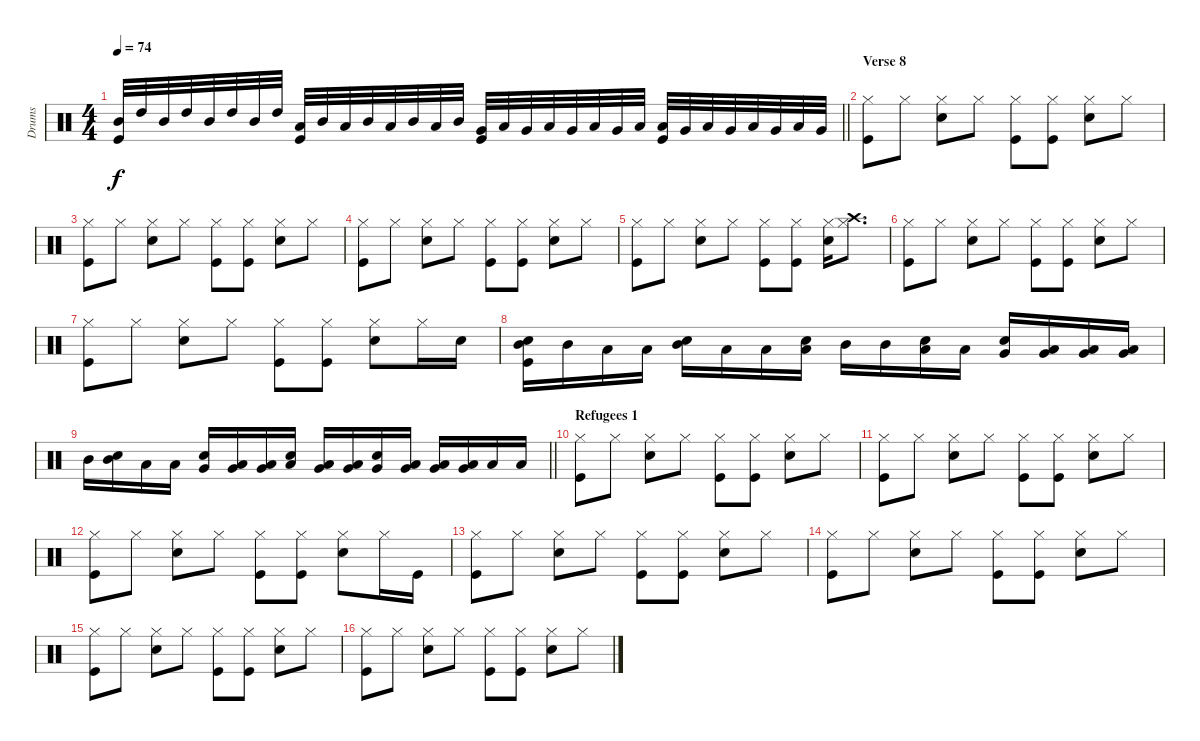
\track ("Drums" "Drums") {instrument percussion}
\staff {score}
\articulation defaults
\ts (4 4)
\tempo 74
\clef neutral
\barLineRight lightlight
\ks c
("Mid Tom (hit)" "Kick (hit)").32{dy f} "High Tom (hit)".32 "Mid Tom (hit)".32 "High Tom (hit)".32 "Mid Tom (hit)".32 "High Tom (hit)".32 "Mid Tom (hit)".32 "High Tom (hit)".32 ("Low Tom (hit)" "Kick (hit)").32 "Mid Tom (hit)".32 "Low Tom (hit)".32 "Mid Tom (hit)".32 "Low Tom (hit)".32 "Mid Tom (hit)".32 "Low Tom (hit)".32 "Mid Tom (hit)".32 ("Very Low Tom (hit)" "Kick (hit)").32 "Low Tom (hit)".32 "Very Low Tom (hit)".32 "Low Tom (hit)".32 "Very Low Tom (hit)".32 "Low Tom (hit)".32 "Very Low Tom (hit)".32 "Low Tom (hit)".32 ("Kick (hit)" "Low Floor Tom (hit)").32 "Very Low Tom (hit)".32 "Low Floor Tom (hit)".32 "Very Low Tom (hit)".32 "Low Floor Tom (hit)".32 "Very Low Tom (hit)".32 "Low Floor Tom (hit)".32 "Very Low Tom (hit)".32 |
\section ("" "Verse 8")
("Kick (hit)" "Hi-Hat (closed)").8 "Hi-Hat (closed)".8 ("Snare (hit) 2" "Hi-Hat (closed)").8 "Hi-Hat (closed)".8 ("Kick (hit)" "Hi-Hat (closed)").8 ("Kick (hit)" "Hi-Hat (closed)").8 ("Snare (hit) 2" "Hi-Hat (closed)").8 "Hi-Hat (closed)".8 |
("Kick (hit)" "Hi-Hat (closed)").8 "Hi-Hat (closed)".8 ("Snare (hit) 2" "Hi-Hat (closed)").8 "Hi-Hat (closed)".8 ("Kick (hit)" "Hi-Hat (closed)").8 ("Kick (hit)" "Hi-Hat (closed)").8 ("Snare (hit) 2" "Hi-Hat (closed)").8 "Hi-Hat (closed)".8 |
("Kick (hit)" "Hi-Hat (closed)").8 "Hi-Hat (closed)".8 ("Snare (hit) 2" "Hi-Hat (closed)").8 "Hi-Hat (closed)".8 ("Kick (hit)" "Hi-Hat (closed)").8 ("Kick (hit)" "Hi-Hat (closed)").8 ("Snare (hit) 2" "Hi-Hat (closed)").8 "Hi-Hat (closed)".8 |
("Kick (hit)" "Hi-Hat (closed)").8 "Hi-Hat (closed)".8 ("Snare (hit) 2" "Hi-Hat (closed)").8 "Hi-Hat (closed)".8 ("Kick (hit)" "Hi-Hat (closed)").8 ("Kick (hit)" "Hi-Hat (closed)").8 ("Snare (hit) 2" "Hi-Hat (closed)").16 ("Hi-Hat (closed)" "Crash high (hit)").8{d} |
("Kick (hit)" "Hi-Hat (closed)").8 "Hi-Hat (closed)".8 ("Snare (hit) 2" "Hi-Hat (closed)").8 "Hi-Hat (closed)".8 ("Kick (hit)" "Hi-Hat (closed)").8 ("Kick (hit)" "Hi-Hat (closed)").8 ("Snare (hit) 2" "Hi-Hat (closed)").8 "Hi-Hat (closed)".8 |
("Kick (hit)" "Hi-Hat (closed)").8 "Hi-Hat (closed)".8 ("Snare (hit) 2" "Hi-Hat (closed)").8 "Hi-Hat (closed)".8 ("Kick (hit)" "Hi-Hat (closed)").8 ("Kick (hit)" "Hi-Hat (closed)").8 ("Snare (hit) 2" "Hi-Hat (closed)").8 "Hi-Hat (closed)".16 "Snare (hit) 2".16 |
("Kick (hit)" "Snare (hit) 2" "Mid Tom (hit)").16 "Mid Tom (hit)".16 "Low Tom (hit)".16 "Low Tom (hit)".16 ("Mid Tom (hit)" "Snare (hit) 2").16 "Low Tom (hit)".16 "Low Tom (hit)".16 ("Snare (hit) 2" "Low Tom (hit)").16 "Mid Tom (hit)".16 "Mid Tom (hit)".16 ("Low Tom (hit)" "Snare (hit) 2").16 "Low Tom (hit)".16 ("Very Low Tom (hit)" "Snare (hit) 2").16 ("Very Low Tom (hit)" "Low Tom (hit)").16 ("Very Low Tom (hit)" "Low Tom (hit)").16 ("Low Floor Tom (hit)" "Very Low Tom (hit)").16 |
\barLineRight lightlight "Mid Tom (hit)".16
("Mid Tom (hit)" "Snare (hit) 2").16 "Low Tom (hit)".16 "Low Tom (hit)".16 ("Very Low Tom (hit)" "Snare (hit) 2").16 ("Very Low Tom (hit)" "Low Tom (hit)").16 ("Very Low Tom (hit)" "Low Tom (hit)").16 ("Low Floor Tom (hit)" "Snare (hit) 2").16 ("Very Low Tom (hit)" "Low Tom (hit)").16 ("Very Low Tom (hit)" "Low Tom (hit)").16 ("Very Low Tom (hit)" "Snare (hit) 2").16 ("Very Low Tom (hit)" "Low Tom (hit)").16 ("Low Floor Tom (hit)" "Very Low Tom (hit)").16 ("Low Floor Tom (hit)" "Very Low Tom (hit)").16 "Low Floor Tom (hit)".16 "Low Floor Tom (hit)".16 |
\section ("" "Refugees 1")
("Kick (hit)" "Hi-Hat (closed)").8 "Hi-Hat (closed)".8 ("Snare (hit) 2" "Hi-Hat (closed)").8 "Hi-Hat (closed)".8 ("Kick (hit)" "Hi-Hat (closed)").8 ("Kick (hit)" "Hi-Hat (closed)").8 ("Snare (hit) 2" "Hi-Hat (closed)").8 "Hi-Hat (closed)".8 |
("Kick (hit)" "Hi-Hat (closed)").8 "Hi-Hat (closed)".8 ("Snare (hit) 2" "Hi-Hat (closed)").8 "Hi-Hat (closed)".8 ("Kick (hit)" "Hi-Hat (closed)").8 ("Kick (hit)" "Hi-Hat (closed)").8 ("Snare (hit) 2" "Hi-Hat (closed)").8 "Hi-Hat (closed)".8 |
("Kick (hit)" "Hi-Hat (closed)").8 "Hi-Hat (closed)".8 ("Snare (hit) 2" "Hi-Hat (closed)").8 "Hi-Hat (closed)".8 ("Kick (hit)" "Hi-Hat (closed)").8 ("Kick (hit)" "Hi-Hat (closed)").8 ("Snare (hit) 2" "Hi-Hat (closed)").8 "Hi-Hat (closed)".16 "Kick (hit)".16 |
("Kick (hit)" "Hi-Hat (closed)").8 "Hi-Hat (closed)".8 ("Snare (hit) 2" "Hi-Hat (closed)").8 "Hi-Hat (closed)".8 ("Kick (hit)" "Hi-Hat (closed)").8 ("Kick (hit)" "Hi-Hat (closed)").8 ("Snare (hit) 2" "Hi-Hat (closed)").8 "Hi-Hat (closed)".8 |
("Kick (hit)" "Hi-Hat (closed)").8 "Hi-Hat (closed)".8 ("Snare (hit) 2" "Hi-Hat (closed)").8 "Hi-Hat (closed)".8 ("Kick (hit)" "Hi-Hat (closed)").8 ("Kick (hit)" "Hi-Hat (closed)").8 ("Snare (hit) 2" "Hi-Hat (closed)").8 "Hi-Hat (closed)".8 |
("Kick (hit)" "Hi-Hat (closed)").8 "Hi-Hat (closed)".8 ("Snare (hit) 2" "Hi-Hat (closed)").8 "Hi-Hat (closed)".8 ("Kick (hit)" "Hi-Hat (closed)").8 ("Kick (hit)" "Hi-Hat (closed)").8 ("Snare (hit) 2" "Hi-Hat (closed)").8 "Hi-Hat (closed)".8 |
("Kick (hit)" "Hi-Hat (closed)").8 "Hi-Hat (closed)".8 ("Snare (hit) 2" "Hi-Hat (closed)").8 "Hi-Hat (closed)".8 ("Kick (hit)" "Hi-Hat (closed)").8 ("Kick (hit)" "Hi-Hat (closed)").8 ("Snare (hit) 2" "Hi-Hat (closed)").8 "Hi-Hat (closed)".8
